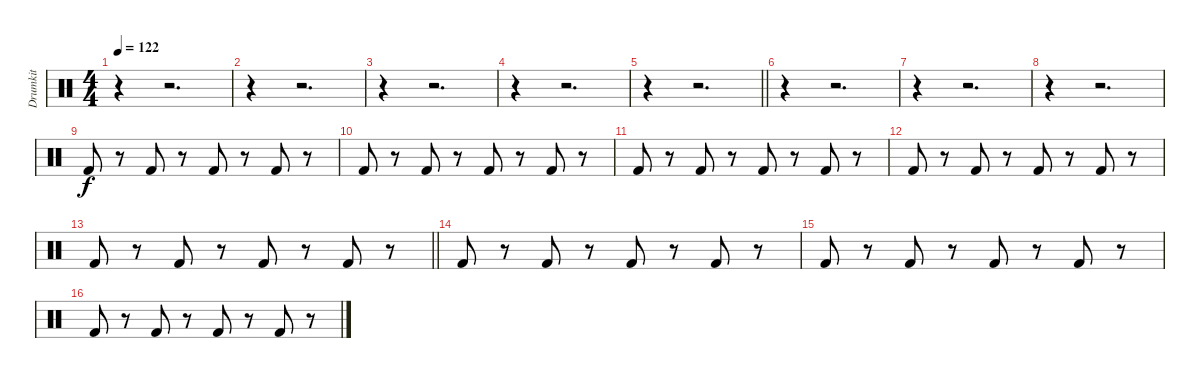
\track ("Drumkit" "Drumkit") {instrument percussion}
\staff {score}
\articulation defaults
\ts (4 4)
\tempo 122
\clef neutral
\ks c
r.4{dy ff} r.2{d} |
r.4 r.2{d} |
r.4 r.2{d} |
r.4 r.2{d} |
\barLineRight lightlight
r.4 r.2{d} |
r.4 r.2{d} |
r.4 r.2{d} |
r.4 r.2{d} |
"Kick (hit) 2".8{dy f} r.8 "Kick (hit) 2".8 r.8 "Kick (hit) 2".8 r.8 "Kick (hit) 2".8 r.8 |
"Kick (hit) 2".8 r.8 "Kick (hit) 2".8 r.8 "Kick (hit) 2".8 r.8 "Kick (hit) 2".8 r.8 |
"Kick (hit) 2".8 r.8 "Kick (hit) 2".8 r.8 "Kick (hit) 2".8 r.8 "Kick (hit) 2".8 r.8 |
"Kick (hit) 2".8 r.8 "Kick (hit) 2".8 r.8 "Kick (hit) 2".8 r.8 "Kick (hit) 2".8 r.8 |
\barLineRight lightlight "Kick (hit) 2".8
r.8 "Kick (hit) 2".8 r.8 "Kick (hit) 2".8 r.8 "Kick (hit) 2".8 r.8 |
"Kick (hit) 2".8 r.8 "Kick (hit) 2".8 r.8 "Kick (hit) 2".8 r.8 "Kick (hit) 2".8 r.8 |
"Kick (hit) 2".8 r.8 "Kick (hit) 2".8 r.8 "Kick (hit) 2".8 r.8 "Kick (hit) 2".8 r.8 |
"Kick (hit) 2".8 r.8 "Kick (hit) 2".8 r.8 "Kick (hit) 2".8 r.8 "Kick (hit) 2".8 r.8
